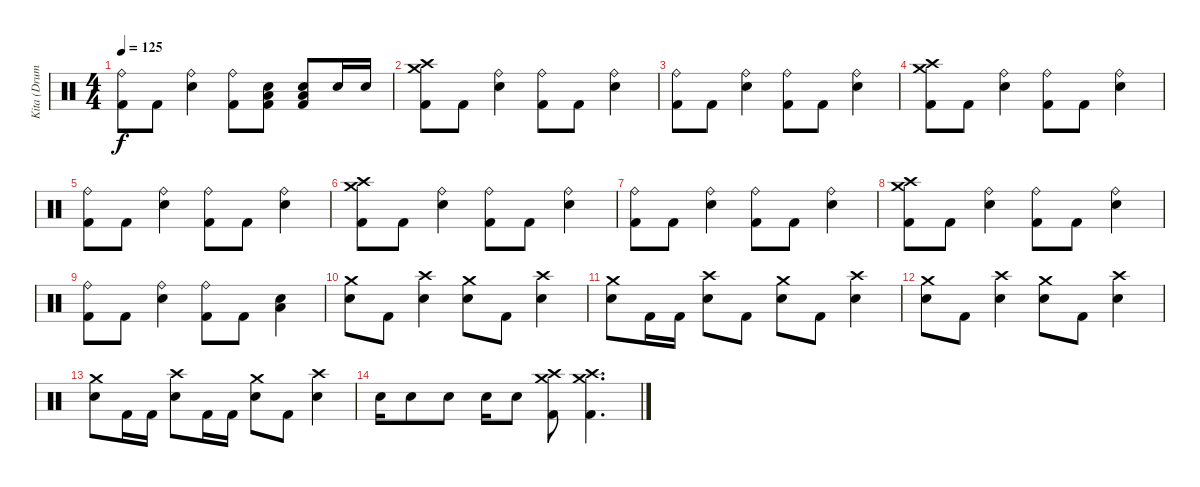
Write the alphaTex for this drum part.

\track ("Kita (Drums)" "Kita (Drum") {instrument percussion}
\staff {score}
\articulation defaults
\ts (4 4)
\tempo 125
\clef neutral
\ks c
("Ride (bell)" "Kick (hit) 2").8{dy f} "Kick (hit) 2".8 ("Ride (bell)" "Electric Snare (hit)").4 ("Ride (bell)" "Kick (hit) 2").8 ("Low Floor Tom (hit)" "Electric Snare (hit)" "Kick (hit) 2").8 ("Low Floor Tom (hit)" "Electric Snare (hit)" "Kick (hit) 2").8 "Electric Snare (hit)".16 "Electric Snare (hit)".16 |
("Crash medium (hit)" "Crash high (hit)" "Kick (hit) 2").8 "Kick (hit) 2".8 ("Ride (bell)" "Electric Snare (hit)").4 ("Ride (bell)" "Kick (hit) 2").8 "Kick (hit) 2".8 ("Ride (bell)" "Electric Snare (hit)").4 |
("Ride (bell)" "Kick (hit) 2").8 "Kick (hit) 2".8 ("Ride (bell)" "Electric Snare (hit)").4 ("Ride (bell)" "Kick (hit) 2").8 "Kick (hit) 2".8 ("Ride (bell)" "Electric Snare (hit)").4 |
("Crash medium (hit)" "Crash high (hit)" "Kick (hit) 2").8 "Kick (hit) 2".8 ("Ride (bell)" "Electric Snare (hit)").4 ("Ride (bell)" "Kick (hit) 2").8 "Kick (hit) 2".8 ("Ride (bell)" "Electric Snare (hit)").4 |
("Ride (bell)" "Kick (hit) 2").8 "Kick (hit) 2".8 ("Ride (bell)" "Electric Snare (hit)").4 ("Ride (bell)" "Kick (hit) 2").8 "Kick (hit) 2".8 ("Ride (bell)" "Electric Snare (hit)").4 |
("Crash medium (hit)" "Crash high (hit)" "Kick (hit) 2").8 "Kick (hit) 2".8 ("Ride (bell)" "Electric Snare (hit)").4 ("Ride (bell)" "Kick (hit) 2").8 "Kick (hit) 2".8 ("Ride (bell)" "Electric Snare (hit)").4 |
("Ride (bell)" "Kick (hit) 2").8 "Kick (hit) 2".8 ("Ride (bell)" "Electric Snare (hit)").4 ("Ride (bell)" "Kick (hit) 2").8 "Kick (hit) 2".8 ("Ride (bell)" "Electric Snare (hit)").4 |
("Crash medium (hit)" "Crash high (hit)" "Kick (hit) 2").8 "Kick (hit) 2".8 ("Ride (bell)" "Electric Snare (hit)").4 ("Ride (bell)" "Kick (hit) 2").8 "Kick (hit) 2".8 ("Ride (bell)" "Electric Snare (hit)").4 |
("Ride (bell)" "Kick (hit) 2").8 "Kick (hit) 2".8 ("Ride (bell)" "Electric Snare (hit)").4 ("Ride (bell)" "Kick (hit) 2").8 "Kick (hit) 2".8 ("Low Floor Tom (hit)" "Electric Snare (hit)").4 |
("Crash medium (hit)" "Electric Snare (hit)").8 "Kick (hit) 2".8 ("Crash high (hit)" "Electric Snare (hit)").4 ("Crash medium (hit)" "Electric Snare (hit)").8 "Kick (hit) 2".8 ("Crash high (hit)" "Electric Snare (hit)").4 |
("Crash medium (hit)" "Electric Snare (hit)").8 "Kick (hit) 2".16 "Kick (hit) 2".16 ("Crash high (hit)" "Electric Snare (hit)").8 "Kick (hit) 2".8 ("Crash medium (hit)" "Electric Snare (hit)").8 "Kick (hit) 2".8 ("Crash high (hit)" "Electric Snare (hit)").4 |
("Crash medium (hit)" "Electric Snare (hit)").8 "Kick (hit) 2".8 ("Crash high (hit)" "Electric Snare (hit)").4 ("Crash medium (hit)" "Electric Snare (hit)").8 "Kick (hit) 2".8 ("Crash high (hit)" "Electric Snare (hit)").4 |
("Crash medium (hit)" "Electric Snare (hit)").8 "Kick (hit) 2".16 "Kick (hit) 2".16 ("Crash high (hit)" "Electric Snare (hit)").8 "Kick (hit) 2".16 "Kick (hit) 2".16 ("Crash medium (hit)" "Electric Snare (hit)").8 "Kick (hit) 2".8 ("Crash high (hit)" "Electric Snare (hit)").4 |
"Electric Snare (hit)".16 "Electric Snare (hit)".8 "Electric Snare (hit)".8 "Electric Snare (hit)".16 "Electric Snare (hit)".8 ("Crash medium (hit)" "Crash high (hit)" "Kick (hit) 2").8 ("Crash medium (hit)" "Crash high (hit)" "Kick (hit) 2").4{d}
